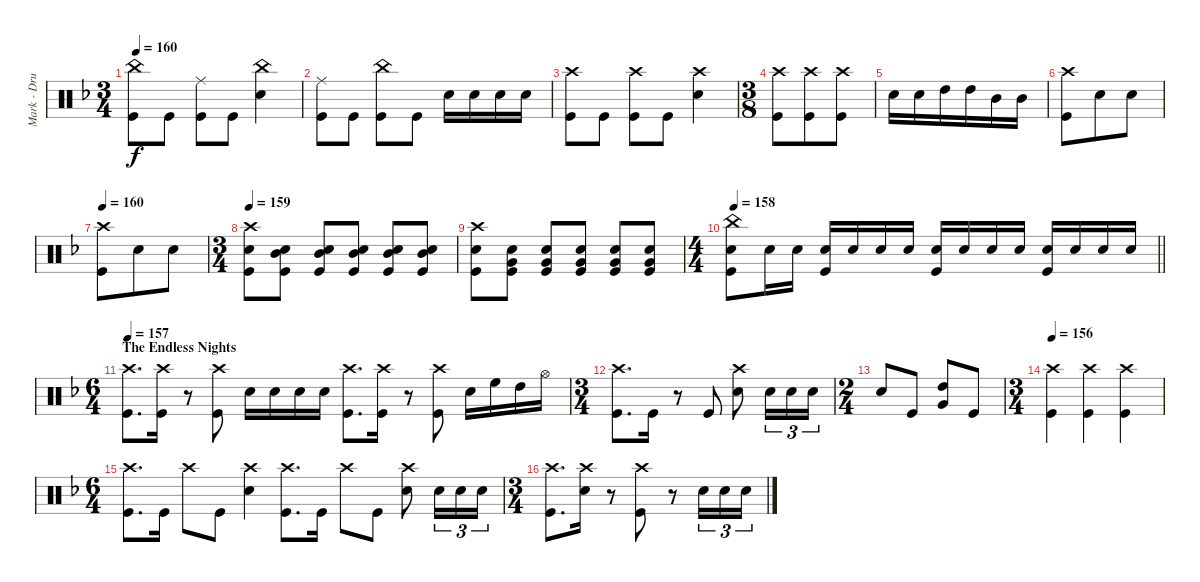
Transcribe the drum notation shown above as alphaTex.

\track ("Mark - Drums" "Mark - Dru") {instrument percussion}
\staff {score}
\articulation defaults
\ts (3 4)
\tempo 160
\clef neutral
\ks dminor
("China (hit)" "Kick (hit)").8{dy f} "Kick (hit)".8 ("Kick (hit)" "Ride (middle)").8 "Kick (hit)".8 ("Snare (hit) 2" "China (hit)").4 |
("Kick (hit)" "Ride (middle)").8 "Kick (hit)".8 ("Kick (hit)" "China (hit)").8 "Kick (hit)".8 "Snare (hit) 2".16 "Snare (hit) 2".16 "Snare (hit) 2".16 "Snare (hit) 2".16 |
("Kick (hit)" "Crash high (hit)").8 "Kick (hit)".8 ("Kick (hit)" "Crash high (hit)").8 "Kick (hit)".8 ("Snare (hit) 2" "Crash high (hit)").4 |
\ts (3 8)
("Kick (hit)" "Crash high (hit)").8 ("Kick (hit)" "Crash high (hit)").8 ("Kick (hit)" "Crash high (hit)").8 |
"Snare (hit) 2".16 "Snare (hit) 2".16 "High Tom (hit)".16 "High Tom (hit)".16 "Mid Tom (hit)".16 "Mid Tom (hit)".16 |
("Kick (hit)" "Crash high (hit)").8 "Snare (hit) 2".8 "Snare (hit) 2".8 |
\tempo 160
("Crash high (hit)" "Kick (hit)").8 "Snare (hit) 2".8 "Snare (hit) 2".8 |
\ts (3 4)
\tempo 159
("Snare (hit) 2" "Crash high (hit)" "Kick (hit)").8 ("Snare (hit) 2" "Kick (hit)" "Mid Tom (hit)").8 ("Snare (hit) 2" "Kick (hit)" "Mid Tom (hit)").8 ("Snare (hit) 2" "Kick (hit)" "Mid Tom (hit)").8 ("Snare (hit) 2" "Kick (hit)" "Mid Tom (hit)").8 ("Snare (hit) 2" "Kick (hit)" "Mid Tom (hit)").8 |
("Snare (hit) 2" "Crash high (hit)" "Kick (hit)").8 ("Kick (hit)" "Snare (hit) 2" "Very Low Tom (hit)").8 ("Kick (hit)" "Snare (hit) 2" "Very Low Tom (hit)").8 ("Kick (hit)" "Snare (hit) 2" "Very Low Tom (hit)").8 ("Kick (hit)" "Snare (hit) 2" "Very Low Tom (hit)").8 ("Kick (hit)" "Snare (hit) 2" "Very Low Tom (hit)").8 |
\ts (4 4)
\tempo 158
\barLineRight lightlight
("Kick (hit)" "Snare (hit) 2" "China (hit)").8 "Snare (hit) 2".16 "Snare (hit) 2".16 ("Snare (hit) 2" "Kick (hit)").16 "Snare (hit) 2".16 "Snare (hit) 2".16 "Snare (hit) 2".16 ("Snare (hit) 2" "Kick (hit)").16 "Snare (hit) 2".16 "Snare (hit) 2".16 "Snare (hit) 2".16 ("Snare (hit) 2" "Kick (hit)").16 "Snare (hit) 2".16 "Snare (hit) 2".16 "Snare (hit) 2".16 |
\ts (6 4)
\section ("" "The Endless Nights")
\tempo 157
("Crash high (hit)" "Kick (hit)").8{d} ("Kick (hit)" "Crash high (hit)").16 r.8 ("Kick (hit)" "Crash high (hit)").8 "Snare (hit) 2".16 "Snare (hit) 2".16 "Snare (hit) 2".16 "Snare (hit) 2".16 ("Kick (hit)" "Crash high (hit)").8{d} ("Kick (hit)" "Crash high (hit)").16 r.8 ("Kick (hit)" "Crash high (hit)").8 "Snare (hit) 2".16 "High Floor Tom (hit)".16 "High Tom (hit)".16 "Hi-Hat (open)".16 |
\ts (3 4)
("Kick (hit)" "Crash high (hit)").8{d} "Kick (hit)".16 r.8 "Kick (hit)".8 ("Snare (hit) 2" "Crash high (hit)").8 "Snare (hit) 2".16{tu (3 2)} "Snare (hit) 2".16{tu (3 2)} "Snare (hit) 2".16{tu (3 2)} |
\ts (2 4)
"Snare (hit) 2".8 "Kick (hit)".8 ("High Tom (hit)" "Very Low Tom (hit)").8 "Kick (hit)".8 |
\ts (3 4)
\tempo 156
("Kick (hit)" "Crash high (hit)").4 ("Kick (hit)" "Crash high (hit)").4 ("Kick (hit)" "Crash high (hit)").4 |
\ts (6 4)
("Kick (hit)" "Crash high (hit)").8{d} "Kick (hit)".16 "Crash high (hit)".8 "Kick (hit)".8 ("Snare (hit) 2" "Crash high (hit)").4 ("Kick (hit)" "Crash high (hit)").8{d} "Kick (hit)".16 "Crash high (hit)".8 "Kick (hit)".8 ("Snare (hit) 2" "Crash high (hit)").8 "Snare (hit) 2".16{tu (3 2)} "Snare (hit) 2".16{tu (3 2)} "Snare (hit) 2".16{tu (3 2)} |
\ts (3 4)
("Kick (hit)" "Crash high (hit)").8{d} ("Snare (hit) 2" "Crash high (hit)").16 r.8 ("Kick (hit)" "Crash high (hit)").8 r.8 "Snare (hit) 2".16{tu (3 2)} "Snare (hit) 2".16{tu (3 2)} "Snare (hit) 2".16{tu (3 2)}
